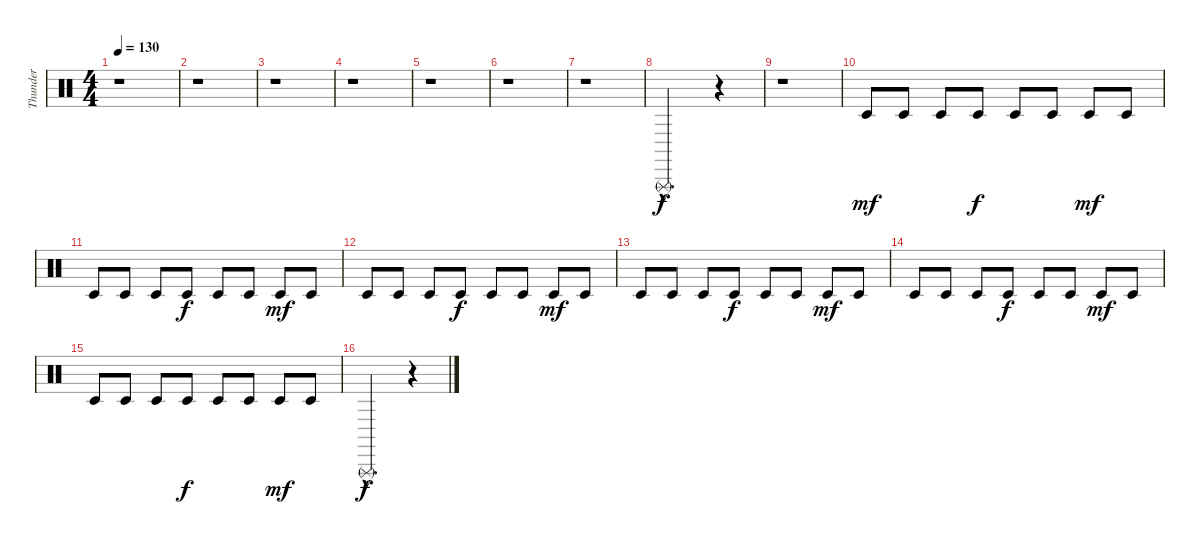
\track ("Thunder" "Thunder") {instrument percussion}
\staff {score}
\articulation defaults
\ts (4 4)
\tempo 130
\clef neutral
\ks c
r.1{dy f} |
r.1 |
r.1 |
r.1 |
r.1 |
r.1 |
r.1 |
"Triangle (rnute)"{hac}.2{d} r.4 |
r.1 |
"Timbale low (hit)".8{dy mf} "Timbale low (hit)".8 "Timbale low (hit)".8 "Timbale low (hit)".8{dy f} "Timbale low (hit)".8 "Timbale low (hit)".8 "Timbale low (hit)".8{dy mf} "Timbale low (hit)".8 |
"Timbale low (hit)".8 "Timbale low (hit)".8 "Timbale low (hit)".8 "Timbale low (hit)".8{dy f} "Timbale low (hit)".8 "Timbale low (hit)".8 "Timbale low (hit)".8{dy mf} "Timbale low (hit)".8 |
"Timbale low (hit)".8 "Timbale low (hit)".8 "Timbale low (hit)".8 "Timbale low (hit)".8{dy f} "Timbale low (hit)".8 "Timbale low (hit)".8 "Timbale low (hit)".8{dy mf} "Timbale low (hit)".8 |
"Timbale low (hit)".8 "Timbale low (hit)".8 "Timbale low (hit)".8 "Timbale low (hit)".8{dy f} "Timbale low (hit)".8 "Timbale low (hit)".8 "Timbale low (hit)".8{dy mf} "Timbale low (hit)".8 |
"Timbale low (hit)".8 "Timbale low (hit)".8 "Timbale low (hit)".8 "Timbale low (hit)".8{dy f} "Timbale low (hit)".8 "Timbale low (hit)".8 "Timbale low (hit)".8{dy mf} "Timbale low (hit)".8 |
"Timbale low (hit)".8 "Timbale low (hit)".8 "Timbale low (hit)".8 "Timbale low (hit)".8{dy f} "Timbale low (hit)".8 "Timbale low (hit)".8 "Timbale low (hit)".8{dy mf} "Timbale low (hit)".8 |
"Triangle (rnute)"{hac}.2{d dy f} r.4
